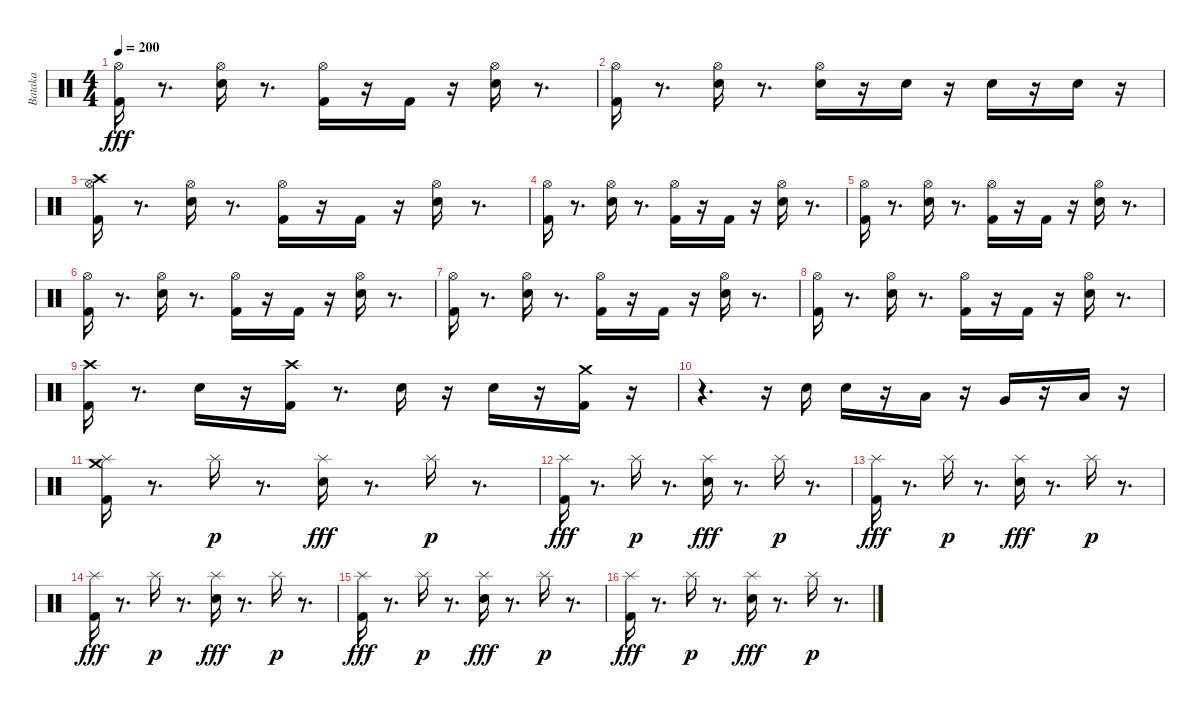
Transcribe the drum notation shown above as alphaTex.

\track ("Bataka" "Bataka") {instrument percussion}
\staff {score}
\articulation defaults
\ts (4 4)
\tempo 200
\clef neutral
\ks c
("Kick (hit) 2" "Hi-Hat (open)").16{dy fff} r.8{d} ("Electric Snare (hit)" "Hi-Hat (open)").16 r.8{d} ("Kick (hit) 2" "Hi-Hat (open)").16 r.16 "Kick (hit) 2".16 r.16 ("Electric Snare (hit)" "Hi-Hat (open)").16 r.8{d} |
("Kick (hit) 2" "Hi-Hat (open)").16 r.8{d} ("Electric Snare (hit)" "Hi-Hat (open)").16 r.8{d} ("Hi-Hat (open)" "Electric Snare (hit)").16 r.16 "Electric Snare (hit)".16 r.16 "Electric Snare (hit)".16 r.16 "Electric Snare (hit)".16 r.16 |
("Kick (hit) 2" "Hi-Hat (open)" "Crash high (hit)").16 r.8{d} ("Electric Snare (hit)" "Hi-Hat (open)").16 r.8{d} ("Kick (hit) 2" "Hi-Hat (open)").16 r.16 "Kick (hit) 2".16 r.16 ("Electric Snare (hit)" "Hi-Hat (open)").16 r.8{d} |
("Kick (hit) 2" "Hi-Hat (open)").16 r.8{d} ("Electric Snare (hit)" "Hi-Hat (open)").16 r.8{d} ("Kick (hit) 2" "Hi-Hat (open)").16 r.16 "Kick (hit) 2".16 r.16 ("Electric Snare (hit)" "Hi-Hat (open)").16 r.8{d} |
("Kick (hit) 2" "Hi-Hat (open)").16 r.8{d} ("Electric Snare (hit)" "Hi-Hat (open)").16 r.8{d} ("Kick (hit) 2" "Hi-Hat (open)").16 r.16 "Kick (hit) 2".16 r.16 ("Electric Snare (hit)" "Hi-Hat (open)").16 r.8{d} |
("Kick (hit) 2" "Hi-Hat (open)").16 r.8{d} ("Electric Snare (hit)" "Hi-Hat (open)").16 r.8{d} ("Kick (hit) 2" "Hi-Hat (open)").16 r.16 "Kick (hit) 2".16 r.16 ("Electric Snare (hit)" "Hi-Hat (open)").16 r.8{d} |
("Kick (hit) 2" "Hi-Hat (open)").16 r.8{d} ("Electric Snare (hit)" "Hi-Hat (open)").16 r.8{d} ("Kick (hit) 2" "Hi-Hat (open)").16 r.16 "Kick (hit) 2".16 r.16 ("Electric Snare (hit)" "Hi-Hat (open)").16 r.8{d} |
("Kick (hit) 2" "Hi-Hat (open)").16 r.8{d} ("Electric Snare (hit)" "Hi-Hat (open)").16 r.8{d} ("Kick (hit) 2" "Hi-Hat (open)").16 r.16 "Kick (hit) 2".16 r.16 ("Electric Snare (hit)" "Hi-Hat (open)").16 r.8{d} |
("Crash high (hit)" "Kick (hit) 2").16 r.8{d} "Electric Snare (hit)".16 r.16 ("Crash high (hit)" "Kick (hit) 2").16 r.8{d} "Electric Snare (hit)".16 r.16 "Electric Snare (hit)".16 r.16 ("Kick (hit) 2" "Crash medium (hit)").16 r.16 |
r.4{d} r.16 "Electric Snare (hit)".16 "Electric Snare (hit)".16 r.16 "Low Floor Tom (hit)".16 r.16 "Very Low Tom (hit)".16 r.16 "Low Tom (hit)".16 r.16 |
("Splash (hit)" "Kick (hit) 2" "Crash medium (hit)").16 r.8{d} "Splash (hit)".16{dy p} r.8{d} ("Splash (hit)" "Electric Snare (hit)").16{dy fff} r.8{d} "Splash (hit)".16{dy p} r.8{d} |
("Splash (hit)" "Kick (hit) 2").16{dy fff} r.8{d} "Splash (hit)".16{dy p} r.8{d} ("Splash (hit)" "Electric Snare (hit)").16{dy fff} r.8{d} "Splash (hit)".16{dy p} r.8{d} |
("Splash (hit)" "Kick (hit) 2").16{dy fff} r.8{d} "Splash (hit)".16{dy p} r.8{d} ("Splash (hit)" "Electric Snare (hit)").16{dy fff} r.8{d} "Splash (hit)".16{dy p} r.8{d} |
("Splash (hit)" "Kick (hit) 2").16{dy fff} r.8{d} "Splash (hit)".16{dy p} r.8{d} ("Splash (hit)" "Electric Snare (hit)").16{dy fff} r.8{d} "Splash (hit)".16{dy p} r.8{d} |
("Splash (hit)" "Kick (hit) 2").16{dy fff} r.8{d} "Splash (hit)".16{dy p} r.8{d} ("Splash (hit)" "Electric Snare (hit)").16{dy fff} r.8{d} "Splash (hit)".16{dy p} r.8{d} |
("Splash (hit)" "Kick (hit) 2").16{dy fff} r.8{d} "Splash (hit)".16{dy p} r.8{d} ("Splash (hit)" "Electric Snare (hit)").16{dy fff} r.8{d} "Splash (hit)".16{dy p} r.8{d}
